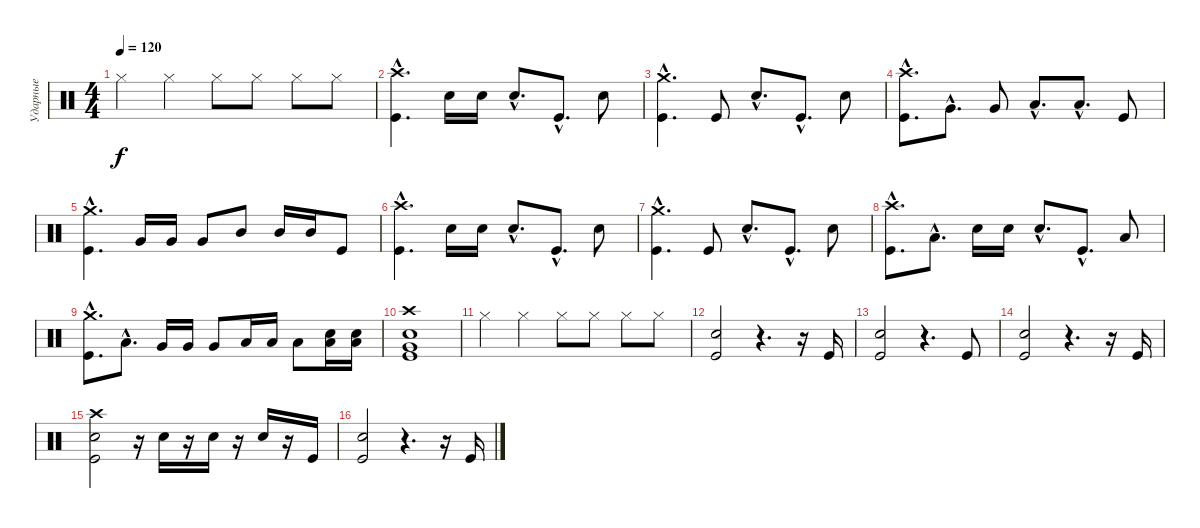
\track ("Ударные" "Ударные") {instrument percussion}
\staff {score}
\articulation defaults
\ts (4 4)
\tempo 120
\clef neutral
\ks c "Hi-Hat (closed)".4{dy f} "Hi-Hat (closed)".4 "Hi-Hat (closed)".8 "Hi-Hat (closed)".8 "Hi-Hat (closed)".8 "Hi-Hat (closed)".8
|
("Crash high (hit)"{hac} "Kick (hit)"{hac}).4{d} "Electric Snare (hit)".16 "Electric Snare (hit)".16 "Electric Snare (hit)"{hac}.8{d} "Kick (hit)"{hac}.8{d} "Electric Snare (hit)".8 |
("Crash medium (hit)"{hac} "Kick (hit)"{hac}).4{d} "Kick (hit)".8 "Electric Snare (hit)"{hac}.8{d} "Kick (hit)"{hac}.8{d} "Electric Snare (hit)".8 |
("Crash high (hit)"{hac} "Kick (hit)"{hac}).8{d} "Very Low Tom (hit)"{hac}.8{d} "Very Low Tom (hit)".8 "Low Tom (hit)"{hac}.8{d} "Low Tom (hit)"{hac}.8{d} "Kick (hit)".8 |
("Crash medium (hit)"{hac} "Kick (hit)"{hac}).4{d} "Very Low Tom (hit)".16 "Very Low Tom (hit)".16 "Very Low Tom (hit)".8 "Mid Tom (hit)".8 "Mid Tom (hit)".16 "Mid Tom (hit)".16 "Kick (hit)".8 |
("Crash high (hit)"{hac} "Kick (hit)"{hac}).4{d} "Electric Snare (hit)".16 "Electric Snare (hit)".16 "Electric Snare (hit)"{hac}.8{d} "Kick (hit)"{hac}.8{d} "Electric Snare (hit)".8 |
("Crash medium (hit)"{hac} "Kick (hit)"{hac}).4{d} "Kick (hit)".8 "Electric Snare (hit)"{hac}.8{d} "Kick (hit)"{hac}.8{d} "Electric Snare (hit)".8 |
("Crash high (hit)"{hac} "Kick (hit)"{hac}).8{d} "Low Tom (hit)"{hac}.8{d} "Electric Snare (hit)".16 "Electric Snare (hit)".16 "Electric Snare (hit)"{hac}.8{d} "Kick (hit)"{hac}.8{d} "Low Tom (hit)".8 |
("Crash medium (hit)"{hac} "Kick (hit)"{hac}).8{d} "Low Tom (hit)"{hac}.8{d} "Very Low Tom (hit)".16 "Very Low Tom (hit)".16 "Very Low Tom (hit)".8 "Low Tom (hit)".16 "Low Tom (hit)".16 "Low Tom (hit)".8 ("Electric Snare (hit)" "Low Tom (hit)").16 ("Electric Snare (hit)" "Low Tom (hit)").16 |
("Crash high (hit)" "Very Low Tom (hit)" "Electric Snare (hit)" "Kick (hit)").1 |
"Hi-Hat (closed)".4 "Hi-Hat (closed)".4 "Hi-Hat (closed)".8 "Hi-Hat (closed)".8 "Hi-Hat (closed)".8 "Hi-Hat (closed)".8 |
("Electric Snare (hit)" "Kick (hit)").2 r.4{d} r.16 "Kick (hit)".16 |
("Electric Snare (hit)" "Kick (hit)").2 r.4{d} "Kick (hit)".8 |
("Electric Snare (hit)" "Kick (hit)").2 r.4{d} r.16 "Kick (hit)".16 |
("Crash high (hit)" "Electric Snare (hit)" "Kick (hit)").2 r.16 "Electric Snare (hit)".16 r.16 "Electric Snare (hit)".16 r.16 "Electric Snare (hit)".16 r.16 "Kick (hit)".16 |
("Electric Snare (hit)" "Kick (hit)").2 r.4{d} r.16 "Kick (hit)".16
